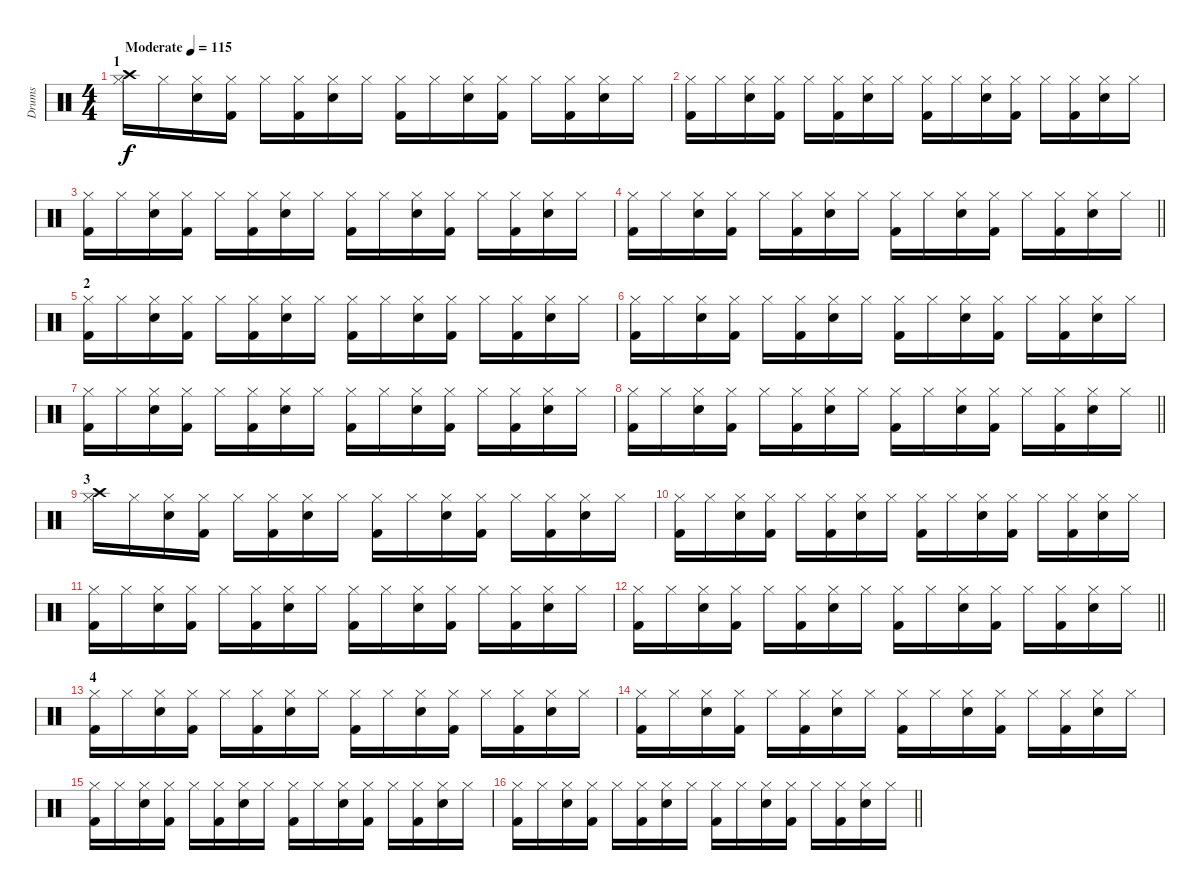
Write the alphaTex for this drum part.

\track ("Drums" "Drums") {instrument percussion}
\staff {score}
\articulation defaults
\ts (4 4)
\section ("" "1")
\tempo (115 "Moderate")
\clef neutral
\ks c
("Crash high (hit)" "Hi-Hat (closed)").16{dy f} "Hi-Hat (closed)".16 ("Snare (hit) 2" "Hi-Hat (closed)").16 ("Kick (hit) 2" "Hi-Hat (closed)").16 "Hi-Hat (closed)".16 ("Kick (hit) 2" "Hi-Hat (closed)").16 ("Snare (hit) 2" "Hi-Hat (closed)").16 "Hi-Hat (closed)".16 ("Kick (hit) 2" "Hi-Hat (closed)").16 "Hi-Hat (closed)".16 ("Snare (hit) 2" "Hi-Hat (closed)").16 ("Kick (hit) 2" "Hi-Hat (closed)").16 "Hi-Hat (closed)".16 ("Kick (hit) 2" "Hi-Hat (closed)").16 ("Snare (hit) 2" "Hi-Hat (closed)").16 "Hi-Hat (closed)".16 |
("Kick (hit) 2" "Hi-Hat (closed)").16 "Hi-Hat (closed)".16 ("Snare (hit) 2" "Hi-Hat (closed)").16 ("Kick (hit) 2" "Hi-Hat (closed)").16 "Hi-Hat (closed)".16 ("Kick (hit) 2" "Hi-Hat (closed)").16 ("Snare (hit) 2" "Hi-Hat (closed)").16 "Hi-Hat (closed)".16 ("Kick (hit) 2" "Hi-Hat (closed)").16 "Hi-Hat (closed)".16 ("Snare (hit) 2" "Hi-Hat (closed)").16 ("Kick (hit) 2" "Hi-Hat (closed)").16 "Hi-Hat (closed)".16 ("Kick (hit) 2" "Hi-Hat (closed)").16 ("Snare (hit) 2" "Hi-Hat (closed)").16 "Hi-Hat (closed)".16 |
("Kick (hit) 2" "Hi-Hat (closed)").16 "Hi-Hat (closed)".16 ("Snare (hit) 2" "Hi-Hat (closed)").16 ("Kick (hit) 2" "Hi-Hat (closed)").16 "Hi-Hat (closed)".16 ("Kick (hit) 2" "Hi-Hat (closed)").16 ("Snare (hit) 2" "Hi-Hat (closed)").16 "Hi-Hat (closed)".16 ("Kick (hit) 2" "Hi-Hat (closed)").16 "Hi-Hat (closed)".16 ("Snare (hit) 2" "Hi-Hat (closed)").16 ("Kick (hit) 2" "Hi-Hat (closed)").16 "Hi-Hat (closed)".16 ("Kick (hit) 2" "Hi-Hat (closed)").16 ("Snare (hit) 2" "Hi-Hat (closed)").16 "Hi-Hat (closed)".16 |
\barLineRight lightlight
("Kick (hit) 2" "Hi-Hat (closed)").16 "Hi-Hat (closed)".16 ("Snare (hit) 2" "Hi-Hat (closed)").16 ("Kick (hit) 2" "Hi-Hat (closed)").16 "Hi-Hat (closed)".16 ("Kick (hit) 2" "Hi-Hat (closed)").16 ("Snare (hit) 2" "Hi-Hat (closed)").16 "Hi-Hat (closed)".16 ("Kick (hit) 2" "Hi-Hat (closed)").16 "Hi-Hat (closed)".16 ("Snare (hit) 2" "Hi-Hat (closed)").16 ("Kick (hit) 2" "Hi-Hat (closed)").16 "Hi-Hat (closed)".16 ("Kick (hit) 2" "Hi-Hat (closed)").16 ("Snare (hit) 2" "Hi-Hat (closed)").16 "Hi-Hat (closed)".16 |
\section ("" "2")
("Kick (hit) 2" "Hi-Hat (closed)").16 "Hi-Hat (closed)".16 ("Snare (hit) 2" "Hi-Hat (closed)").16 ("Kick (hit) 2" "Hi-Hat (closed)").16 "Hi-Hat (closed)".16 ("Kick (hit) 2" "Hi-Hat (closed)").16 ("Snare (hit) 2" "Hi-Hat (closed)").16 "Hi-Hat (closed)".16 ("Kick (hit) 2" "Hi-Hat (closed)").16 "Hi-Hat (closed)".16 ("Snare (hit) 2" "Hi-Hat (closed)").16 ("Kick (hit) 2" "Hi-Hat (closed)").16 "Hi-Hat (closed)".16 ("Kick (hit) 2" "Hi-Hat (closed)").16 ("Snare (hit) 2" "Hi-Hat (closed)").16 "Hi-Hat (closed)".16 |
("Kick (hit) 2" "Hi-Hat (closed)").16 "Hi-Hat (closed)".16 ("Snare (hit) 2" "Hi-Hat (closed)").16 ("Kick (hit) 2" "Hi-Hat (closed)").16 "Hi-Hat (closed)".16 ("Kick (hit) 2" "Hi-Hat (closed)").16 ("Snare (hit) 2" "Hi-Hat (closed)").16 "Hi-Hat (closed)".16 ("Kick (hit) 2" "Hi-Hat (closed)").16 "Hi-Hat (closed)".16 ("Snare (hit) 2" "Hi-Hat (closed)").16 ("Kick (hit) 2" "Hi-Hat (closed)").16 "Hi-Hat (closed)".16 ("Kick (hit) 2" "Hi-Hat (closed)").16 ("Snare (hit) 2" "Hi-Hat (closed)").16 "Hi-Hat (closed)".16 |
("Kick (hit) 2" "Hi-Hat (closed)").16 "Hi-Hat (closed)".16 ("Snare (hit) 2" "Hi-Hat (closed)").16 ("Kick (hit) 2" "Hi-Hat (closed)").16 "Hi-Hat (closed)".16 ("Kick (hit) 2" "Hi-Hat (closed)").16 ("Snare (hit) 2" "Hi-Hat (closed)").16 "Hi-Hat (closed)".16 ("Kick (hit) 2" "Hi-Hat (closed)").16 "Hi-Hat (closed)".16 ("Snare (hit) 2" "Hi-Hat (closed)").16 ("Kick (hit) 2" "Hi-Hat (closed)").16 "Hi-Hat (closed)".16 ("Kick (hit) 2" "Hi-Hat (closed)").16 ("Snare (hit) 2" "Hi-Hat (closed)").16 "Hi-Hat (closed)".16 |
\barLineRight lightlight
("Kick (hit) 2" "Hi-Hat (closed)").16 "Hi-Hat (closed)".16 ("Snare (hit) 2" "Hi-Hat (closed)").16 ("Kick (hit) 2" "Hi-Hat (closed)").16 "Hi-Hat (closed)".16 ("Kick (hit) 2" "Hi-Hat (closed)").16 ("Snare (hit) 2" "Hi-Hat (closed)").16 "Hi-Hat (closed)".16 ("Kick (hit) 2" "Hi-Hat (closed)").16 "Hi-Hat (closed)".16 ("Snare (hit) 2" "Hi-Hat (closed)").16 ("Kick (hit) 2" "Hi-Hat (closed)").16 "Hi-Hat (closed)".16 ("Kick (hit) 2" "Hi-Hat (closed)").16 ("Snare (hit) 2" "Hi-Hat (closed)").16 "Hi-Hat (closed)".16 |
\section ("" "3")
("Crash high (hit)" "Hi-Hat (closed)").16 "Hi-Hat (closed)".16 ("Snare (hit) 2" "Hi-Hat (closed)").16 ("Kick (hit) 2" "Hi-Hat (closed)").16 "Hi-Hat (closed)".16 ("Kick (hit) 2" "Hi-Hat (closed)").16 ("Snare (hit) 2" "Hi-Hat (closed)").16 "Hi-Hat (closed)".16 ("Kick (hit) 2" "Hi-Hat (closed)").16 "Hi-Hat (closed)".16 ("Snare (hit) 2" "Hi-Hat (closed)").16 ("Kick (hit) 2" "Hi-Hat (closed)").16 "Hi-Hat (closed)".16 ("Kick (hit) 2" "Hi-Hat (closed)").16 ("Snare (hit) 2" "Hi-Hat (closed)").16 "Hi-Hat (closed)".16 |
("Kick (hit) 2" "Hi-Hat (closed)").16 "Hi-Hat (closed)".16 ("Snare (hit) 2" "Hi-Hat (closed)").16 ("Kick (hit) 2" "Hi-Hat (closed)").16 "Hi-Hat (closed)".16 ("Kick (hit) 2" "Hi-Hat (closed)").16 ("Snare (hit) 2" "Hi-Hat (closed)").16 "Hi-Hat (closed)".16 ("Kick (hit) 2" "Hi-Hat (closed)").16 "Hi-Hat (closed)".16 ("Snare (hit) 2" "Hi-Hat (closed)").16 ("Kick (hit) 2" "Hi-Hat (closed)").16 "Hi-Hat (closed)".16 ("Kick (hit) 2" "Hi-Hat (closed)").16 ("Snare (hit) 2" "Hi-Hat (closed)").16 "Hi-Hat (closed)".16 |
("Kick (hit) 2" "Hi-Hat (closed)").16 "Hi-Hat (closed)".16 ("Snare (hit) 2" "Hi-Hat (closed)").16 ("Kick (hit) 2" "Hi-Hat (closed)").16 "Hi-Hat (closed)".16 ("Kick (hit) 2" "Hi-Hat (closed)").16 ("Snare (hit) 2" "Hi-Hat (closed)").16 "Hi-Hat (closed)".16 ("Kick (hit) 2" "Hi-Hat (closed)").16 "Hi-Hat (closed)".16 ("Snare (hit) 2" "Hi-Hat (closed)").16 ("Kick (hit) 2" "Hi-Hat (closed)").16 "Hi-Hat (closed)".16 ("Kick (hit) 2" "Hi-Hat (closed)").16 ("Snare (hit) 2" "Hi-Hat (closed)").16 "Hi-Hat (closed)".16 |
\barLineRight lightlight
("Kick (hit) 2" "Hi-Hat (closed)").16 "Hi-Hat (closed)".16 ("Snare (hit) 2" "Hi-Hat (closed)").16 ("Kick (hit) 2" "Hi-Hat (closed)").16 "Hi-Hat (closed)".16 ("Kick (hit) 2" "Hi-Hat (closed)").16 ("Snare (hit) 2" "Hi-Hat (closed)").16 "Hi-Hat (closed)".16 ("Kick (hit) 2" "Hi-Hat (closed)").16 "Hi-Hat (closed)".16 ("Snare (hit) 2" "Hi-Hat (closed)").16 ("Kick (hit) 2" "Hi-Hat (closed)").16 "Hi-Hat (closed)".16 ("Kick (hit) 2" "Hi-Hat (closed)").16 ("Snare (hit) 2" "Hi-Hat (closed)").16 "Hi-Hat (closed)".16 |
\section ("" "4")
("Kick (hit) 2" "Hi-Hat (closed)").16 "Hi-Hat (closed)".16 ("Snare (hit) 2" "Hi-Hat (closed)").16 ("Kick (hit) 2" "Hi-Hat (closed)").16 "Hi-Hat (closed)".16 ("Kick (hit) 2" "Hi-Hat (closed)").16 ("Snare (hit) 2" "Hi-Hat (closed)").16 "Hi-Hat (closed)".16 ("Kick (hit) 2" "Hi-Hat (closed)").16 "Hi-Hat (closed)".16 ("Snare (hit) 2" "Hi-Hat (closed)").16 ("Kick (hit) 2" "Hi-Hat (closed)").16 "Hi-Hat (closed)".16 ("Kick (hit) 2" "Hi-Hat (closed)").16 ("Snare (hit) 2" "Hi-Hat (closed)").16 "Hi-Hat (closed)".16 |
("Kick (hit) 2" "Hi-Hat (closed)").16 "Hi-Hat (closed)".16 ("Snare (hit) 2" "Hi-Hat (closed)").16 ("Kick (hit) 2" "Hi-Hat (closed)").16 "Hi-Hat (closed)".16 ("Kick (hit) 2" "Hi-Hat (closed)").16 ("Snare (hit) 2" "Hi-Hat (closed)").16 "Hi-Hat (closed)".16 ("Kick (hit) 2" "Hi-Hat (closed)").16 "Hi-Hat (closed)".16 ("Snare (hit) 2" "Hi-Hat (closed)").16 ("Kick (hit) 2" "Hi-Hat (closed)").16 "Hi-Hat (closed)".16 ("Kick (hit) 2" "Hi-Hat (closed)").16 ("Snare (hit) 2" "Hi-Hat (closed)").16 "Hi-Hat (closed)".16 |
("Kick (hit) 2" "Hi-Hat (closed)").16 "Hi-Hat (closed)".16 ("Snare (hit) 2" "Hi-Hat (closed)").16 ("Kick (hit) 2" "Hi-Hat (closed)").16 "Hi-Hat (closed)".16 ("Kick (hit) 2" "Hi-Hat (closed)").16 ("Snare (hit) 2" "Hi-Hat (closed)").16 "Hi-Hat (closed)".16 ("Kick (hit) 2" "Hi-Hat (closed)").16 "Hi-Hat (closed)".16 ("Snare (hit) 2" "Hi-Hat (closed)").16 ("Kick (hit) 2" "Hi-Hat (closed)").16 "Hi-Hat (closed)".16 ("Kick (hit) 2" "Hi-Hat (closed)").16 ("Snare (hit) 2" "Hi-Hat (closed)").16 "Hi-Hat (closed)".16 |
\barLineRight lightlight
("Kick (hit) 2" "Hi-Hat (closed)").16 "Hi-Hat (closed)".16 ("Snare (hit) 2" "Hi-Hat (closed)").16 ("Kick (hit) 2" "Hi-Hat (closed)").16 "Hi-Hat (closed)".16 ("Kick (hit) 2" "Hi-Hat (closed)").16 ("Snare (hit) 2" "Hi-Hat (closed)").16 "Hi-Hat (closed)".16 ("Kick (hit) 2" "Hi-Hat (closed)").16 "Hi-Hat (closed)".16 ("Snare (hit) 2" "Hi-Hat (closed)").16 ("Kick (hit) 2" "Hi-Hat (closed)").16 "Hi-Hat (closed)".16 ("Kick (hit) 2" "Hi-Hat (closed)").16 ("Snare (hit) 2" "Hi-Hat (closed)").16 "Hi-Hat (closed)".16
